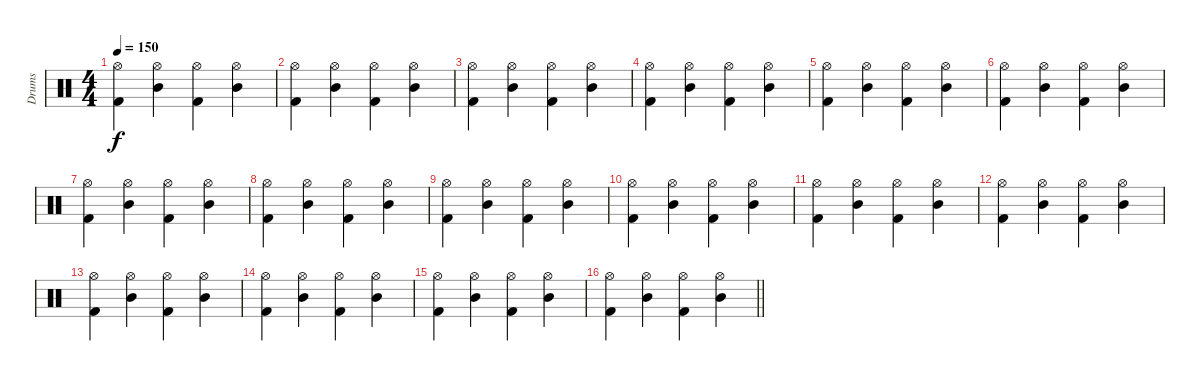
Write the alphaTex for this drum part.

\track ("Drums" "Drums") {instrument percussion}
\staff {score}
\articulation defaults
\ts (4 4)
\tempo 150
\clef neutral
\ks c
("Kick (hit) 2" "Hi-Hat (open)").4{dy f} ("Mid Tom (hit)" "Hi-Hat (open)").4 ("Kick (hit) 2" "Hi-Hat (open)").4 ("Mid Tom (hit)" "Hi-Hat (open)").4 |
("Kick (hit) 2" "Hi-Hat (open)").4 ("Mid Tom (hit)" "Hi-Hat (open)").4 ("Kick (hit) 2" "Hi-Hat (open)").4 ("Mid Tom (hit)" "Hi-Hat (open)").4 |
("Kick (hit) 2" "Hi-Hat (open)").4 ("Mid Tom (hit)" "Hi-Hat (open)").4 ("Kick (hit) 2" "Hi-Hat (open)").4 ("Mid Tom (hit)" "Hi-Hat (open)").4 |
("Kick (hit) 2" "Hi-Hat (open)").4 ("Mid Tom (hit)" "Hi-Hat (open)").4 ("Kick (hit) 2" "Hi-Hat (open)").4 ("Mid Tom (hit)" "Hi-Hat (open)").4 |
("Kick (hit) 2" "Hi-Hat (open)").4 ("Mid Tom (hit)" "Hi-Hat (open)").4 ("Kick (hit) 2" "Hi-Hat (open)").4 ("Mid Tom (hit)" "Hi-Hat (open)").4 |
("Kick (hit) 2" "Hi-Hat (open)").4 ("Mid Tom (hit)" "Hi-Hat (open)").4 ("Kick (hit) 2" "Hi-Hat (open)").4 ("Mid Tom (hit)" "Hi-Hat (open)").4 |
("Kick (hit) 2" "Hi-Hat (open)").4 ("Mid Tom (hit)" "Hi-Hat (open)").4 ("Kick (hit) 2" "Hi-Hat (open)").4 ("Mid Tom (hit)" "Hi-Hat (open)").4 |
("Kick (hit) 2" "Hi-Hat (open)").4 ("Mid Tom (hit)" "Hi-Hat (open)").4 ("Kick (hit) 2" "Hi-Hat (open)").4 ("Mid Tom (hit)" "Hi-Hat (open)").4 |
("Kick (hit) 2" "Hi-Hat (open)").4 ("Mid Tom (hit)" "Hi-Hat (open)").4 ("Kick (hit) 2" "Hi-Hat (open)").4 ("Mid Tom (hit)" "Hi-Hat (open)").4 |
("Kick (hit) 2" "Hi-Hat (open)").4 ("Mid Tom (hit)" "Hi-Hat (open)").4 ("Kick (hit) 2" "Hi-Hat (open)").4 ("Mid Tom (hit)" "Hi-Hat (open)").4 |
("Kick (hit) 2" "Hi-Hat (open)").4 ("Mid Tom (hit)" "Hi-Hat (open)").4 ("Kick (hit) 2" "Hi-Hat (open)").4 ("Mid Tom (hit)" "Hi-Hat (open)").4 |
("Kick (hit) 2" "Hi-Hat (open)").4 ("Mid Tom (hit)" "Hi-Hat (open)").4 ("Kick (hit) 2" "Hi-Hat (open)").4 ("Mid Tom (hit)" "Hi-Hat (open)").4 |
("Kick (hit) 2" "Hi-Hat (open)").4 ("Mid Tom (hit)" "Hi-Hat (open)").4 ("Kick (hit) 2" "Hi-Hat (open)").4 ("Mid Tom (hit)" "Hi-Hat (open)").4 |
("Kick (hit) 2" "Hi-Hat (open)").4 ("Mid Tom (hit)" "Hi-Hat (open)").4 ("Kick (hit) 2" "Hi-Hat (open)").4 ("Mid Tom (hit)" "Hi-Hat (open)").4 |
("Kick (hit) 2" "Hi-Hat (open)").4 ("Mid Tom (hit)" "Hi-Hat (open)").4 ("Kick (hit) 2" "Hi-Hat (open)").4 ("Mid Tom (hit)" "Hi-Hat (open)").4 |
\barLineRight lightlight
("Kick (hit) 2" "Hi-Hat (open)").4 ("Mid Tom (hit)" "Hi-Hat (open)").4 ("Kick (hit) 2" "Hi-Hat (open)").4 ("Mid Tom (hit)" "Hi-Hat (open)").4
